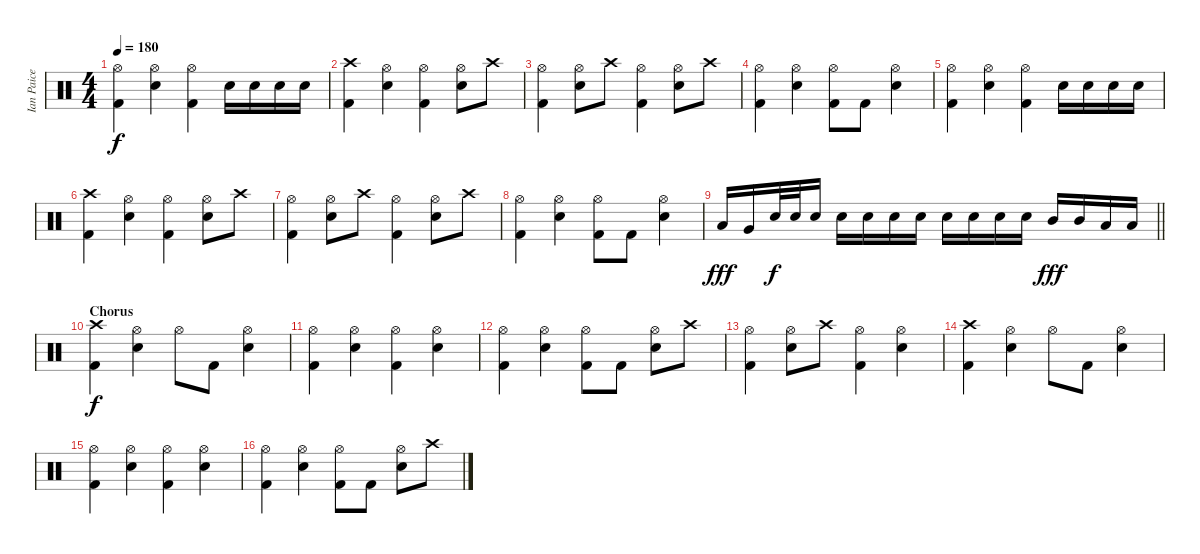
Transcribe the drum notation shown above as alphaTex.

\track ("Ian Paice" "Ian Paice") {instrument percussion}
\staff {score}
\articulation defaults
\ts (4 4)
\tempo 180
\clef neutral
\ks aminor
("Hi-Hat (open)" "Kick (hit) 2").4{dy f} ("Hi-Hat (open)" "Snare (hit) 2").4 ("Hi-Hat (open)" "Kick (hit) 2").4 "Snare (hit) 2".16 "Snare (hit) 2".16 "Snare (hit) 2".16 "Snare (hit) 2".16 |
("Crash high (hit)" "Kick (hit) 2").4 ("Hi-Hat (open)" "Snare (hit) 2").4 ("Hi-Hat (open)" "Kick (hit) 2").4 ("Hi-Hat (open)" "Snare (hit) 2").8 "Crash high (hit)".8 |
("Hi-Hat (open)" "Kick (hit) 2").4 ("Hi-Hat (open)" "Snare (hit) 2").8 "Crash high (hit)".8 ("Hi-Hat (open)" "Kick (hit) 2").4 ("Hi-Hat (open)" "Snare (hit) 2").8 "Crash high (hit)".8 |
("Hi-Hat (open)" "Kick (hit) 2").4 ("Hi-Hat (open)" "Snare (hit) 2").4 ("Hi-Hat (open)" "Kick (hit) 2").8 "Kick (hit) 2".8 ("Hi-Hat (open)" "Snare (hit) 2").4 |
("Hi-Hat (open)" "Kick (hit) 2").4 ("Hi-Hat (open)" "Snare (hit) 2").4 ("Hi-Hat (open)" "Kick (hit) 2").4 "Snare (hit) 2".16 "Snare (hit) 2".16 "Snare (hit) 2".16 "Snare (hit) 2".16 |
("Crash high (hit)" "Kick (hit) 2").4 ("Hi-Hat (open)" "Snare (hit) 2").4 ("Hi-Hat (open)" "Kick (hit) 2").4 ("Hi-Hat (open)" "Snare (hit) 2").8 "Crash high (hit)".8 |
("Hi-Hat (open)" "Kick (hit) 2").4 ("Hi-Hat (open)" "Snare (hit) 2").8 "Crash high (hit)".8 ("Hi-Hat (open)" "Kick (hit) 2").4 ("Hi-Hat (open)" "Snare (hit) 2").8 "Crash high (hit)".8 |
("Hi-Hat (open)" "Kick (hit) 2").4 ("Hi-Hat (open)" "Snare (hit) 2").4 ("Hi-Hat (open)" "Kick (hit) 2").8 "Kick (hit) 2".8 ("Hi-Hat (open)" "Snare (hit) 2").4 |
\barLineRight lightlight "Low Tom (hit)".16{dy fff} "Very Low Tom (hit)".16 "Snare (hit) 2".32{dy f} "Snare (hit) 2".32 "Snare (hit) 2".16 "Snare (hit) 2".16 "Snare (hit) 2".16 "Snare (hit) 2".16 "Snare (hit) 2".16 "Snare (hit) 2".16 "Snare (hit) 2".16 "Snare (hit) 2".16 "Snare (hit) 2".16 "Mid Tom (hit)".16{dy fff} "Mid Tom (hit)".16 "Low Tom (hit)".16 "Low Tom (hit)".16
|
\section ("" "Chorus")
\ks c
("Crash high (hit)" "Kick (hit) 2").4{dy f} ("Hi-Hat (open)" "Snare (hit) 2").4 "Hi-Hat (open)".8 "Kick (hit) 2".8 ("Hi-Hat (open)" "Snare (hit) 2").4 |
("Hi-Hat (open)" "Kick (hit) 2").4 ("Hi-Hat (open)" "Snare (hit) 2").4 ("Hi-Hat (open)" "Kick (hit) 2").4 ("Hi-Hat (open)" "Snare (hit) 2").4 |
("Hi-Hat (open)" "Kick (hit) 2").4 ("Hi-Hat (open)" "Snare (hit) 2").4 ("Hi-Hat (open)" "Kick (hit) 2").8 "Kick (hit) 2".8 ("Hi-Hat (open)" "Snare (hit) 2").8 "Crash high (hit)".8 |
("Hi-Hat (open)" "Kick (hit) 2").4 ("Hi-Hat (open)" "Snare (hit) 2").8 "Crash high (hit)".8 ("Hi-Hat (open)" "Kick (hit) 2").4 ("Hi-Hat (open)" "Snare (hit) 2").4 |
("Crash high (hit)" "Kick (hit) 2").4 ("Hi-Hat (open)" "Snare (hit) 2").4 "Hi-Hat (open)".8 "Kick (hit) 2".8 ("Hi-Hat (open)" "Snare (hit) 2").4 |
("Hi-Hat (open)" "Kick (hit) 2").4 ("Hi-Hat (open)" "Snare (hit) 2").4 ("Hi-Hat (open)" "Kick (hit) 2").4 ("Hi-Hat (open)" "Snare (hit) 2").4 |
("Hi-Hat (open)" "Kick (hit) 2").4 ("Hi-Hat (open)" "Snare (hit) 2").4 ("Hi-Hat (open)" "Kick (hit) 2").8 "Kick (hit) 2".8 ("Hi-Hat (open)" "Snare (hit) 2").8 "Crash high (hit)".8
